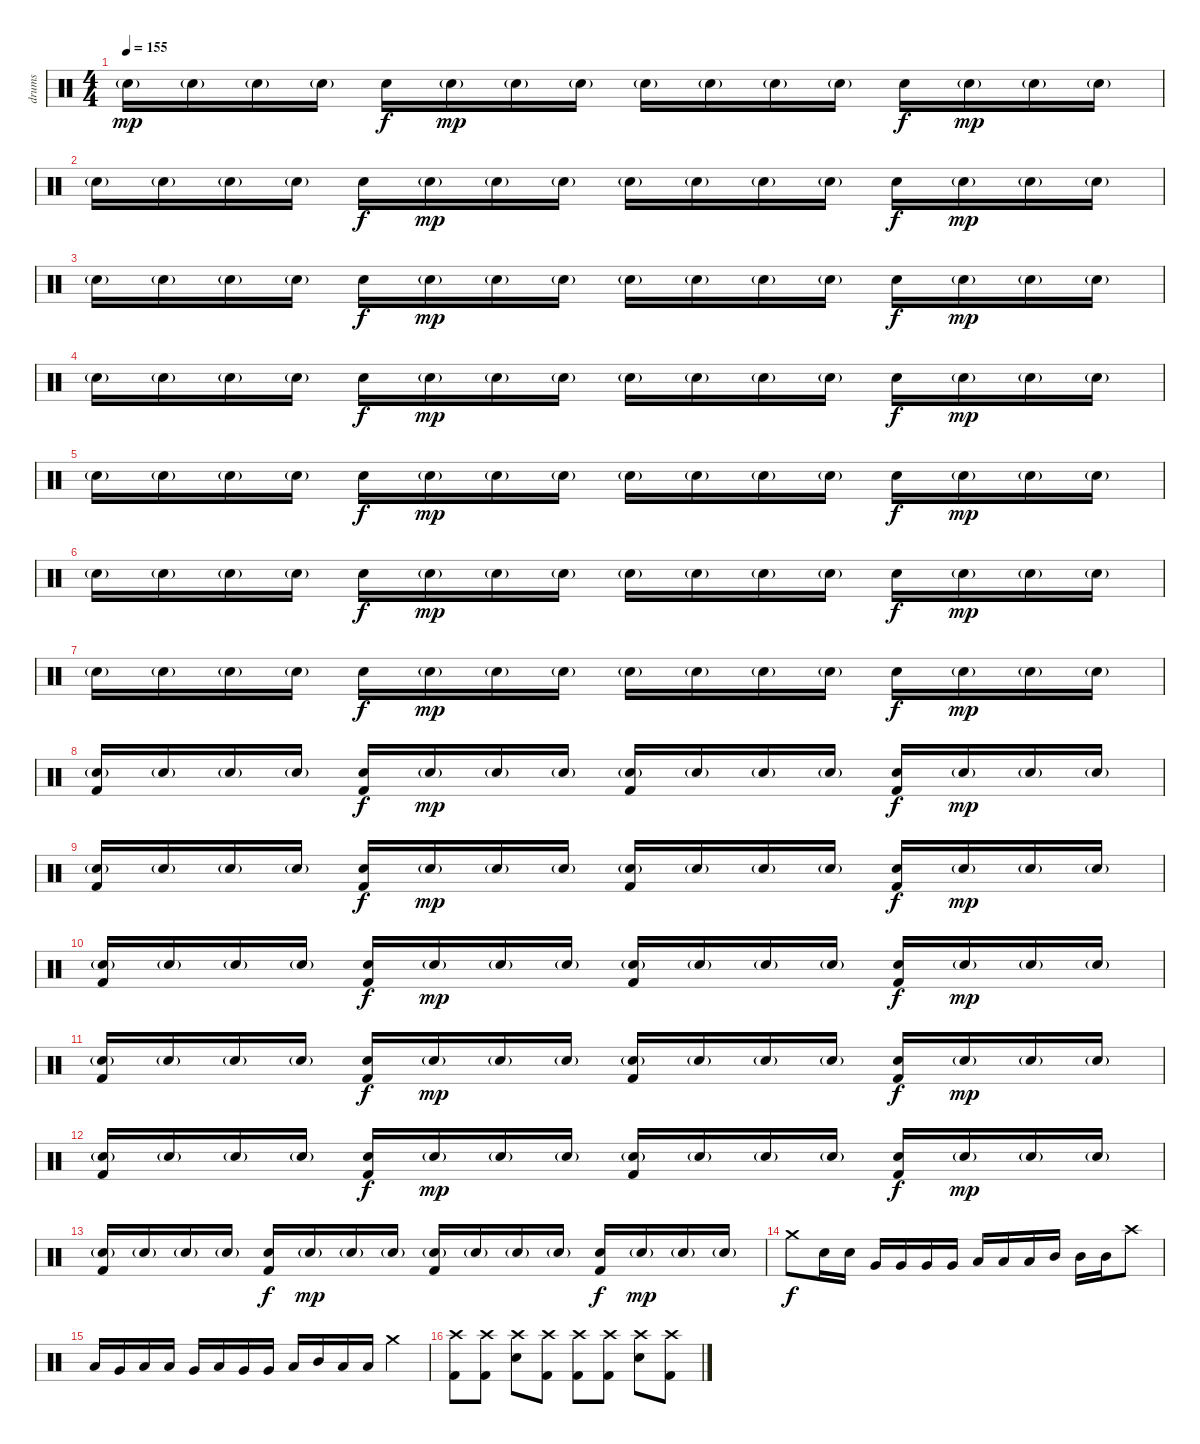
\track ("drums" "drums") {instrument percussion}
\staff {score}
\articulation defaults
\ts (4 4)
\tempo 155
\clef neutral
\ks c "Snare (hit) 2"{g}.16{dy mp} "Snare (hit) 2"{g}.16 "Snare (hit) 2"{g}.16 "Snare (hit) 2"{g}.16 "Snare (hit) 2".16{dy f} "Snare (hit) 2"{g}.16{dy mp} "Snare (hit) 2"{g}.16 "Snare (hit) 2"{g}.16 "Snare (hit) 2"{g}.16 "Snare (hit) 2"{g}.16 "Snare (hit) 2"{g}.16 "Snare (hit) 2"{g}.16 "Snare (hit) 2".16{dy f} "Snare (hit) 2"{g}.16{dy mp} "Snare (hit) 2"{g}.16 "Snare (hit) 2"{g}.16
|
"Snare (hit) 2"{g}.16 "Snare (hit) 2"{g}.16 "Snare (hit) 2"{g}.16 "Snare (hit) 2"{g}.16 "Snare (hit) 2".16{dy f} "Snare (hit) 2"{g}.16{dy mp} "Snare (hit) 2"{g}.16 "Snare (hit) 2"{g}.16 "Snare (hit) 2"{g}.16 "Snare (hit) 2"{g}.16 "Snare (hit) 2"{g}.16 "Snare (hit) 2"{g}.16 "Snare (hit) 2".16{dy f} "Snare (hit) 2"{g}.16{dy mp} "Snare (hit) 2"{g}.16 "Snare (hit) 2"{g}.16 |
"Snare (hit) 2"{g}.16 "Snare (hit) 2"{g}.16 "Snare (hit) 2"{g}.16 "Snare (hit) 2"{g}.16 "Snare (hit) 2".16{dy f} "Snare (hit) 2"{g}.16{dy mp} "Snare (hit) 2"{g}.16 "Snare (hit) 2"{g}.16 "Snare (hit) 2"{g}.16 "Snare (hit) 2"{g}.16 "Snare (hit) 2"{g}.16 "Snare (hit) 2"{g}.16 "Snare (hit) 2".16{dy f} "Snare (hit) 2"{g}.16{dy mp} "Snare (hit) 2"{g}.16 "Snare (hit) 2"{g}.16 |
"Snare (hit) 2"{g}.16 "Snare (hit) 2"{g}.16 "Snare (hit) 2"{g}.16 "Snare (hit) 2"{g}.16 "Snare (hit) 2".16{dy f} "Snare (hit) 2"{g}.16{dy mp} "Snare (hit) 2"{g}.16 "Snare (hit) 2"{g}.16 "Snare (hit) 2"{g}.16 "Snare (hit) 2"{g}.16 "Snare (hit) 2"{g}.16 "Snare (hit) 2"{g}.16 "Snare (hit) 2".16{dy f} "Snare (hit) 2"{g}.16{dy mp} "Snare (hit) 2"{g}.16 "Snare (hit) 2"{g}.16 |
"Snare (hit) 2"{g}.16 "Snare (hit) 2"{g}.16 "Snare (hit) 2"{g}.16 "Snare (hit) 2"{g}.16 "Snare (hit) 2".16{dy f} "Snare (hit) 2"{g}.16{dy mp} "Snare (hit) 2"{g}.16 "Snare (hit) 2"{g}.16 "Snare (hit) 2"{g}.16 "Snare (hit) 2"{g}.16 "Snare (hit) 2"{g}.16 "Snare (hit) 2"{g}.16 "Snare (hit) 2".16{dy f} "Snare (hit) 2"{g}.16{dy mp} "Snare (hit) 2"{g}.16 "Snare (hit) 2"{g}.16 |
"Snare (hit) 2"{g}.16 "Snare (hit) 2"{g}.16 "Snare (hit) 2"{g}.16 "Snare (hit) 2"{g}.16 "Snare (hit) 2".16{dy f} "Snare (hit) 2"{g}.16{dy mp} "Snare (hit) 2"{g}.16 "Snare (hit) 2"{g}.16 "Snare (hit) 2"{g}.16 "Snare (hit) 2"{g}.16 "Snare (hit) 2"{g}.16 "Snare (hit) 2"{g}.16 "Snare (hit) 2".16{dy f} "Snare (hit) 2"{g}.16{dy mp} "Snare (hit) 2"{g}.16 "Snare (hit) 2"{g}.16 |
"Snare (hit) 2"{g}.16 "Snare (hit) 2"{g}.16 "Snare (hit) 2"{g}.16 "Snare (hit) 2"{g}.16 "Snare (hit) 2".16{dy f} "Snare (hit) 2"{g}.16{dy mp} "Snare (hit) 2"{g}.16 "Snare (hit) 2"{g}.16 "Snare (hit) 2"{g}.16 "Snare (hit) 2"{g}.16 "Snare (hit) 2"{g}.16 "Snare (hit) 2"{g}.16 "Snare (hit) 2".16{dy f} "Snare (hit) 2"{g}.16{dy mp} "Snare (hit) 2"{g}.16 "Snare (hit) 2"{g}.16 |
("Snare (hit) 2"{g} "Kick (hit) 2").16 "Snare (hit) 2"{g}.16 "Snare (hit) 2"{g}.16 "Snare (hit) 2"{g}.16 ("Snare (hit) 2" "Kick (hit) 2").16{dy f} "Snare (hit) 2"{g}.16{dy mp} "Snare (hit) 2"{g}.16 "Snare (hit) 2"{g}.16 ("Snare (hit) 2"{g} "Kick (hit) 2").16 "Snare (hit) 2"{g}.16 "Snare (hit) 2"{g}.16 "Snare (hit) 2"{g}.16 ("Snare (hit) 2" "Kick (hit) 2").16{dy f} "Snare (hit) 2"{g}.16{dy mp} "Snare (hit) 2"{g}.16 "Snare (hit) 2"{g}.16 |
("Snare (hit) 2"{g} "Kick (hit) 2").16 "Snare (hit) 2"{g}.16 "Snare (hit) 2"{g}.16 "Snare (hit) 2"{g}.16 ("Snare (hit) 2" "Kick (hit) 2").16{dy f} "Snare (hit) 2"{g}.16{dy mp} "Snare (hit) 2"{g}.16 "Snare (hit) 2"{g}.16 ("Snare (hit) 2"{g} "Kick (hit) 2").16 "Snare (hit) 2"{g}.16 "Snare (hit) 2"{g}.16 "Snare (hit) 2"{g}.16 ("Snare (hit) 2" "Kick (hit) 2").16{dy f} "Snare (hit) 2"{g}.16{dy mp} "Snare (hit) 2"{g}.16 "Snare (hit) 2"{g}.16 |
("Snare (hit) 2"{g} "Kick (hit) 2").16 "Snare (hit) 2"{g}.16 "Snare (hit) 2"{g}.16 "Snare (hit) 2"{g}.16 ("Snare (hit) 2" "Kick (hit) 2").16{dy f} "Snare (hit) 2"{g}.16{dy mp} "Snare (hit) 2"{g}.16 "Snare (hit) 2"{g}.16 ("Snare (hit) 2"{g} "Kick (hit) 2").16 "Snare (hit) 2"{g}.16 "Snare (hit) 2"{g}.16 "Snare (hit) 2"{g}.16 ("Snare (hit) 2" "Kick (hit) 2").16{dy f} "Snare (hit) 2"{g}.16{dy mp} "Snare (hit) 2"{g}.16 "Snare (hit) 2"{g}.16 |
("Snare (hit) 2"{g} "Kick (hit) 2").16 "Snare (hit) 2"{g}.16 "Snare (hit) 2"{g}.16 "Snare (hit) 2"{g}.16 ("Snare (hit) 2" "Kick (hit) 2").16{dy f} "Snare (hit) 2"{g}.16{dy mp} "Snare (hit) 2"{g}.16 "Snare (hit) 2"{g}.16 ("Snare (hit) 2"{g} "Kick (hit) 2").16 "Snare (hit) 2"{g}.16 "Snare (hit) 2"{g}.16 "Snare (hit) 2"{g}.16 ("Snare (hit) 2" "Kick (hit) 2").16{dy f} "Snare (hit) 2"{g}.16{dy mp} "Snare (hit) 2"{g}.16 "Snare (hit) 2"{g}.16 |
("Snare (hit) 2"{g} "Kick (hit) 2").16 "Snare (hit) 2"{g}.16 "Snare (hit) 2"{g}.16 "Snare (hit) 2"{g}.16 ("Snare (hit) 2" "Kick (hit) 2").16{dy f} "Snare (hit) 2"{g}.16{dy mp} "Snare (hit) 2"{g}.16 "Snare (hit) 2"{g}.16 ("Snare (hit) 2"{g} "Kick (hit) 2").16 "Snare (hit) 2"{g}.16 "Snare (hit) 2"{g}.16 "Snare (hit) 2"{g}.16 ("Snare (hit) 2" "Kick (hit) 2").16{dy f} "Snare (hit) 2"{g}.16{dy mp} "Snare (hit) 2"{g}.16 "Snare (hit) 2"{g}.16 |
("Snare (hit) 2"{g} "Kick (hit) 2").16 "Snare (hit) 2"{g}.16 "Snare (hit) 2"{g}.16 "Snare (hit) 2"{g}.16 ("Snare (hit) 2" "Kick (hit) 2").16{dy f} "Snare (hit) 2"{g}.16{dy mp} "Snare (hit) 2"{g}.16 "Snare (hit) 2"{g}.16 ("Snare (hit) 2"{g} "Kick (hit) 2").16 "Snare (hit) 2"{g}.16 "Snare (hit) 2"{g}.16 "Snare (hit) 2"{g}.16 ("Snare (hit) 2" "Kick (hit) 2").16{dy f} "Snare (hit) 2"{g}.16{dy mp} "Snare (hit) 2"{g}.16 "Snare (hit) 2"{g}.16 |
"Crash medium (hit)".8{dy f} "Snare (hit) 2".16 "Snare (hit) 2".16 "Very Low Tom (hit)".16 "Very Low Tom (hit)".16 "Very Low Tom (hit)".16 "Very Low Tom (hit)".16 "Low Tom (hit)".16 "Low Tom (hit)".16 "Low Tom (hit)".16 "Mid Tom (hit)".16 "Mid Tom (hit)".16 "Mid Tom (hit)".16 "Crash high (hit)".8 |
"Low Floor Tom (hit)".16 "Very Low Tom (hit)".16 "Low Floor Tom (hit)".16 "Low Floor Tom (hit)".16 "Very Low Tom (hit)".16 "Low Tom (hit)".16 "Very Low Tom (hit)".16 "Very Low Tom (hit)".16 "Low Tom (hit)".16 "Mid Tom (hit)".16 "Low Tom (hit)".16 "Low Tom (hit)".16 "Crash medium (hit)".4 |
("Crash high (hit)" "Kick (hit) 2").8 ("Crash high (hit)" "Kick (hit) 2").8 ("Crash high (hit)" "Snare (hit) 2").8 ("Crash high (hit)" "Kick (hit) 2").8 ("Crash high (hit)" "Kick (hit) 2").8 ("Crash high (hit)" "Kick (hit) 2").8 ("Crash high (hit)" "Snare (hit) 2").8 ("Crash high (hit)" "Kick (hit) 2").8
